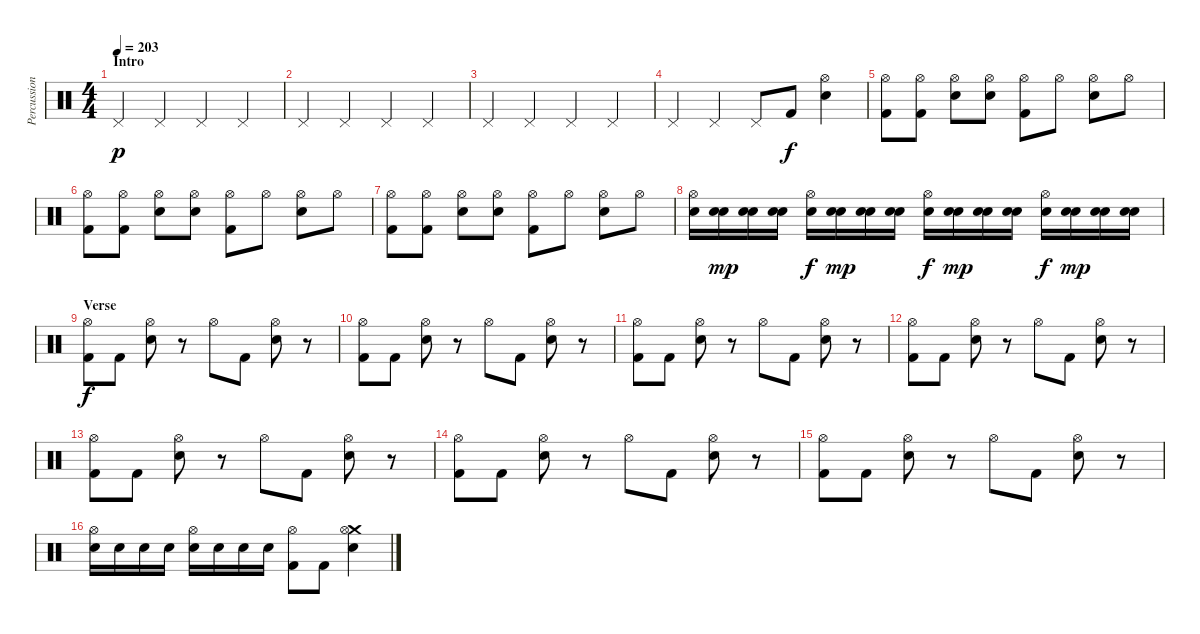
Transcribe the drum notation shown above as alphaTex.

\track ("Percussion" "Percussion") {instrument percussion}
\staff {score}
\articulation defaults
\ts (4 4)
\section ("" "Intro")
\tempo 203
\clef neutral
\ks c "Pedal Hi-Hat (hit)".4{dy p} "Pedal Hi-Hat (hit)".4 "Pedal Hi-Hat (hit)".4 "Pedal Hi-Hat (hit)".4
|
"Pedal Hi-Hat (hit)".4 "Pedal Hi-Hat (hit)".4 "Pedal Hi-Hat (hit)".4 "Pedal Hi-Hat (hit)".4 |
"Pedal Hi-Hat (hit)".4 "Pedal Hi-Hat (hit)".4 "Pedal Hi-Hat (hit)".4 "Pedal Hi-Hat (hit)".4 |
"Pedal Hi-Hat (hit)".4 "Pedal Hi-Hat (hit)".4 "Pedal Hi-Hat (hit)".8 "Kick (hit) 2".8{dy f} ("Hi-Hat (open)" "Electric Snare (hit)").4 |
("Hi-Hat (open)" "Kick (hit) 2").8 ("Hi-Hat (open)" "Kick (hit) 2").8 ("Hi-Hat (open)" "Electric Snare (hit)").8 ("Hi-Hat (open)" "Electric Snare (hit)").8 ("Hi-Hat (open)" "Kick (hit) 2").8 "Hi-Hat (open)".8 ("Hi-Hat (open)" "Electric Snare (hit)").8 "Hi-Hat (open)".8 |
("Hi-Hat (open)" "Kick (hit) 2").8 ("Hi-Hat (open)" "Kick (hit) 2").8 ("Hi-Hat (open)" "Electric Snare (hit)").8 ("Hi-Hat (open)" "Electric Snare (hit)").8 ("Hi-Hat (open)" "Kick (hit) 2").8 "Hi-Hat (open)".8 ("Hi-Hat (open)" "Electric Snare (hit)").8 "Hi-Hat (open)".8 |
("Hi-Hat (open)" "Kick (hit) 2").8 ("Hi-Hat (open)" "Kick (hit) 2").8 ("Hi-Hat (open)" "Electric Snare (hit)").8 ("Hi-Hat (open)" "Electric Snare (hit)").8 ("Hi-Hat (open)" "Kick (hit) 2").8 "Hi-Hat (open)".8 ("Hi-Hat (open)" "Electric Snare (hit)").8 "Hi-Hat (open)".8 |
("Hi-Hat (open)" "Electric Snare (hit)").16 ("Snare (hit) 2" "Electric Snare (hit)").16{dy mp} ("Snare (hit) 2" "Electric Snare (hit)").16 ("Snare (hit) 2" "Electric Snare (hit)").16 ("Hi-Hat (open)" "Electric Snare (hit)").16{dy f} ("Electric Snare (hit)" "Snare (hit) 2").16{dy mp} ("Electric Snare (hit)" "Snare (hit) 2").16 ("Electric Snare (hit)" "Snare (hit) 2").16 ("Hi-Hat (open)" "Electric Snare (hit)").16{dy f} ("Electric Snare (hit)" "Snare (hit) 2").16{dy mp} ("Electric Snare (hit)" "Snare (hit) 2").16 ("Electric Snare (hit)" "Snare (hit) 2").16 ("Hi-Hat (open)" "Electric Snare (hit)").16{dy f} ("Electric Snare (hit)" "Snare (hit) 2").16{dy mp} ("Electric Snare (hit)" "Snare (hit) 2").16 ("Electric Snare (hit)" "Snare (hit) 2").16 |
\section ("" "Verse")
("Hi-Hat (open)" "Kick (hit) 2").8{dy f} "Kick (hit) 2".8 ("Hi-Hat (open)" "Electric Snare (hit)").8 r.8 "Hi-Hat (open)".8 "Kick (hit) 2".8 ("Hi-Hat (open)" "Electric Snare (hit)").8 r.8 |
("Hi-Hat (open)" "Kick (hit) 2").8 "Kick (hit) 2".8 ("Hi-Hat (open)" "Electric Snare (hit)").8 r.8 "Hi-Hat (open)".8 "Kick (hit) 2".8 ("Hi-Hat (open)" "Electric Snare (hit)").8 r.8 |
("Hi-Hat (open)" "Kick (hit) 2").8 "Kick (hit) 2".8 ("Hi-Hat (open)" "Electric Snare (hit)").8 r.8 "Hi-Hat (open)".8 "Kick (hit) 2".8 ("Hi-Hat (open)" "Electric Snare (hit)").8 r.8 |
("Hi-Hat (open)" "Kick (hit) 2").8 "Kick (hit) 2".8 ("Hi-Hat (open)" "Electric Snare (hit)").8 r.8 "Hi-Hat (open)".8 "Kick (hit) 2".8 ("Hi-Hat (open)" "Electric Snare (hit)").8 r.8 |
("Hi-Hat (open)" "Kick (hit) 2").8 "Kick (hit) 2".8 ("Hi-Hat (open)" "Electric Snare (hit)").8 r.8 "Hi-Hat (open)".8 "Kick (hit) 2".8 ("Hi-Hat (open)" "Electric Snare (hit)").8 r.8 |
("Hi-Hat (open)" "Kick (hit) 2").8 "Kick (hit) 2".8 ("Hi-Hat (open)" "Electric Snare (hit)").8 r.8 "Hi-Hat (open)".8 "Kick (hit) 2".8 ("Hi-Hat (open)" "Electric Snare (hit)").8 r.8 |
("Hi-Hat (open)" "Kick (hit) 2").8 "Kick (hit) 2".8 ("Hi-Hat (open)" "Electric Snare (hit)").8 r.8 "Hi-Hat (open)".8 "Kick (hit) 2".8 ("Hi-Hat (open)" "Electric Snare (hit)").8 r.8 |
("Hi-Hat (open)" "Electric Snare (hit)").16 "Electric Snare (hit)".16 "Electric Snare (hit)".16 "Electric Snare (hit)".16 ("Hi-Hat (open)" "Electric Snare (hit)").16 "Electric Snare (hit)".16 "Electric Snare (hit)".16 "Electric Snare (hit)".16 ("Hi-Hat (open)" "Kick (hit) 2").8 "Kick (hit) 2".8 ("Crash medium (hit)" "Hi-Hat (open)" "Electric Snare (hit)").4
